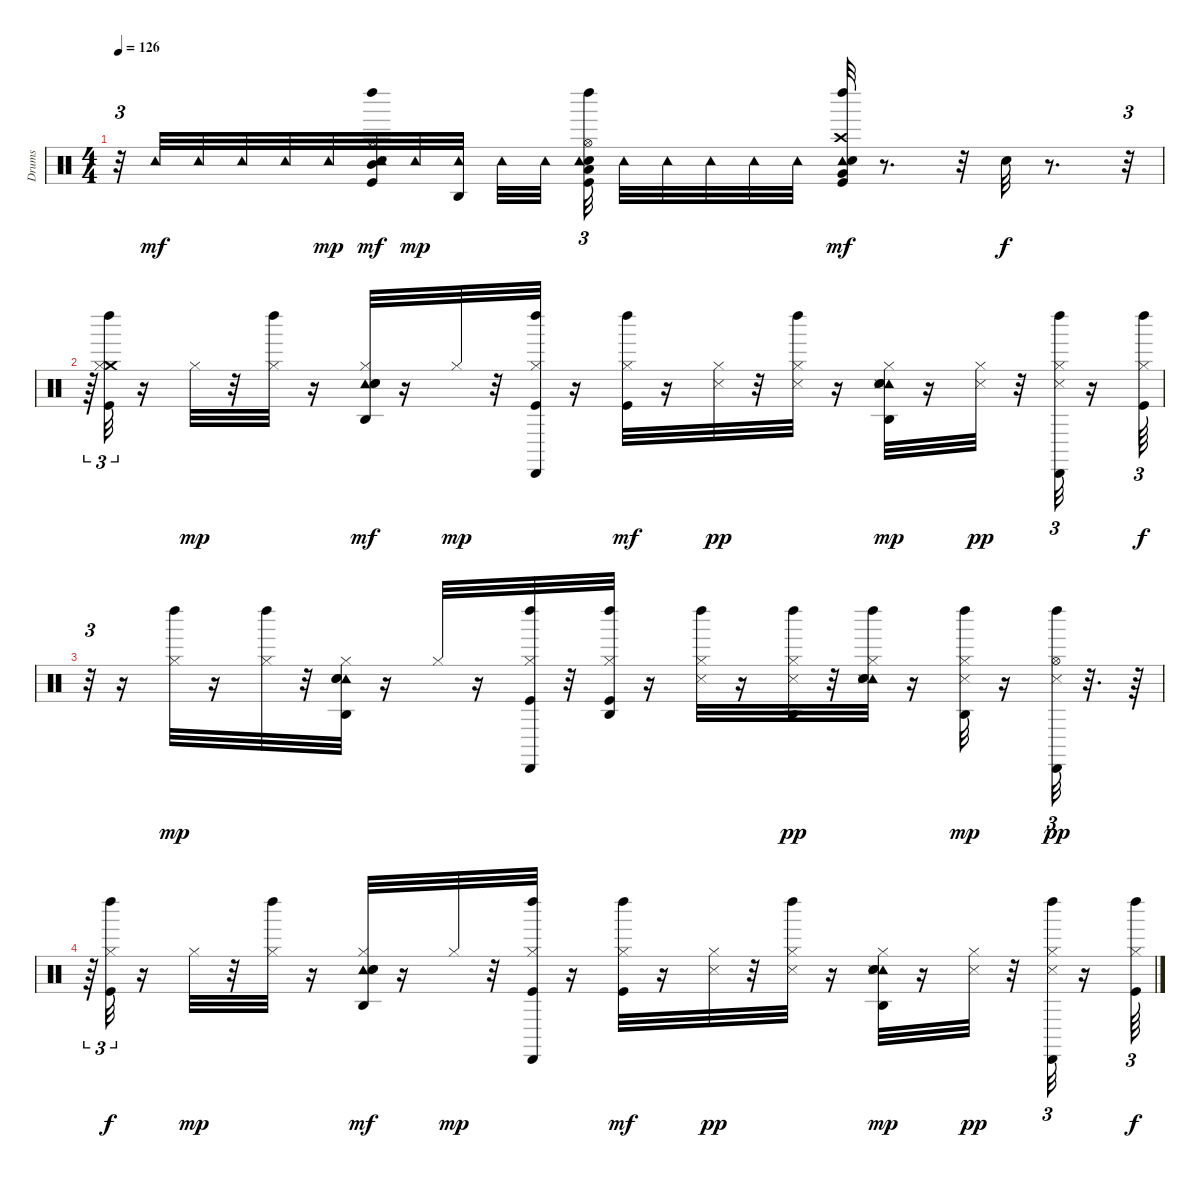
\track ("Drums" "Drums") {instrument percussion}
\staff {score}
\articulation defaults
\ts (4 4)
\tempo 126
\clef neutral
\ks c
r.32{tu (3 2) dy mf} "Tambourine (hit)".32 "Tambourine (hit)".32 "Tambourine (hit)".32 "Tambourine (hit)".32 "Tambourine (hit)".32{dy mp} ("Mid Tom (hit)" "Snare (hit) 2" "Hi-Hat (open)" "Left Maraca (hit)" "Tambourine (hit)" "Kick (hit)").32{dy mf} "Tambourine (hit)".32{dy mp} ("Tambourine (hit)" "Agogo high (hit)").32 "Tambourine (hit)".32 "Tambourine (hit)".32{beam splitsecondary} ("Low Tom (hit)" "Snare (hit) 2" "Hi-Hat (open)" "Left Maraca (hit)" "Tambourine (hit)" "Kick (hit)").32{tu (3 2) beam splitsecondary} "Tambourine (hit)".32 "Tambourine (hit)".32 "Tambourine (hit)".32 "Tambourine (hit)".32 "Tambourine (hit)".32 ("Crash high (hit)" "Tambourine (hit)" "Kick (hit)" "Snare (hit) 2" "Very Low Tom (hit)" "Left Maraca (hit)").32{dy mf} r.8{d} r.32 "Hand Clap (hit)".32{dy f} r.8{d} r.32{tu (3 2)} |
r.64{tu (3 2)} ("Crash medium (hit)" "Kick (hit)" "Hi-Hat (closed)" "Left Maraca (hit)").32{tu (3 2)} r.16 "Hi-Hat (closed)".32{dy mp} r.32 ("Hi-Hat (closed)" "Left Maraca (hit)").32 r.16 ("Hi-Hat (closed)" "Tambourine (hit)" "Agogo high (hit)" "Snare (hit) 2" "Hand Clap (hit)").32{dy mf} r.16 "Hi-Hat (closed)".32{dy mp} r.32 ("Cabasa (hit)" "Kick (hit)" "Hi-Hat (closed)" "Left Maraca (hit)").32 r.16 ("Hi-Hat (closed)" "Kick (hit)" "Left Maraca (hit)").32{dy mf} r.16 ("Hi-Hat (closed)" "Snare (side stick) 3").32{dy pp} r.32 ("Hi-Hat (closed)" "Left Maraca (hit)" "Snare (side stick) 3").32 r.16 ("Hi-Hat (closed)" "Tambourine (hit)" "Hand Clap (hit)" "Snare (hit) 2" "Snare (side stick) 3" "Agogo high (hit)").32{dy mp} r.16 ("Hi-Hat (closed)" "Snare (side stick) 3").32{dy pp} r.32 ("Cabasa (hit)" "Hi-Hat (closed)" "Left Maraca (hit)" "Snare (side stick) 3").32{tu (3 2)} r.16 ("Kick (hit)" "Hi-Hat (closed)" "Left Maraca (hit)").64{tu (3 2) dy f} |
r.32{tu (3 2)} r.16 ("Hi-Hat (closed)" "Left Maraca (hit)").32{dy mp} r.16 ("Left Maraca (hit)" "Hi-Hat (closed)").32 r.32 ("Tambourine (hit)" "Snare (hit) 2" "Hi-Hat (closed)" "Agogo high (hit)" "Hand Clap (hit)").32 r.16 "Hi-Hat (closed)".32 r.16 ("Kick (hit)" "Hi-Hat (closed)" "Left Maraca (hit)" "Cabasa (hit)").32 r.32 ("Kick (hit)" "Hi-Hat (closed)" "Left Maraca (hit)" "Agogo high (hit)").32 r.16 ("Hi-Hat (closed)" "Snare (side stick) 3" "Left Maraca (hit)").32 r.16 ("Hi-Hat (closed)" "Left Maraca (hit)" "Agogo high (hit)" "Snare (side stick) 3").32{dy pp} r.32 ("Hi-Hat (closed)" "Tambourine (hit)" "Hand Clap (hit)" "Snare (hit) 2" "Snare (side stick) 3" "Left Maraca (hit)").32 r.16 ("Hi-Hat (closed)" "Left Maraca (hit)" "Snare (side stick) 3" "Agogo high (hit)").32{dy mp} r.16 ("Hi-Hat (open)" "Left Maraca (hit)" "Cabasa (hit)" "Snare (side stick) 3").32{tu (3 2) dy pp} r.32{d} r.64 |
r.64{tu (3 2)} ("Kick (hit)" "Hi-Hat (closed)" "Left Maraca (hit)").32{tu (3 2) dy f} r.16 "Hi-Hat (closed)".32{dy mp} r.32 ("Hi-Hat (closed)" "Left Maraca (hit)").32 r.16 ("Hi-Hat (closed)" "Tambourine (hit)" "Agogo high (hit)" "Snare (hit) 2" "Hand Clap (hit)").32{dy mf} r.16 "Hi-Hat (closed)".32{dy mp} r.32 ("Cabasa (hit)" "Kick (hit)" "Hi-Hat (closed)" "Left Maraca (hit)").32 r.16 ("Hi-Hat (closed)" "Kick (hit)" "Left Maraca (hit)").32{dy mf} r.16 ("Hi-Hat (closed)" "Snare (side stick) 3").32{dy pp} r.32 ("Hi-Hat (closed)" "Left Maraca (hit)" "Snare (side stick) 3").32 r.16 ("Hi-Hat (closed)" "Tambourine (hit)" "Hand Clap (hit)" "Snare (hit) 2" "Snare (side stick) 3" "Agogo high (hit)").32{dy mp} r.16 ("Hi-Hat (closed)" "Snare (side stick) 3").32{dy pp} r.32 ("Cabasa (hit)" "Hi-Hat (closed)" "Left Maraca (hit)" "Snare (side stick) 3").32{tu (3 2)} r.16 ("Kick (hit)" "Hi-Hat (closed)" "Left Maraca (hit)").64{tu (3 2) dy f}
